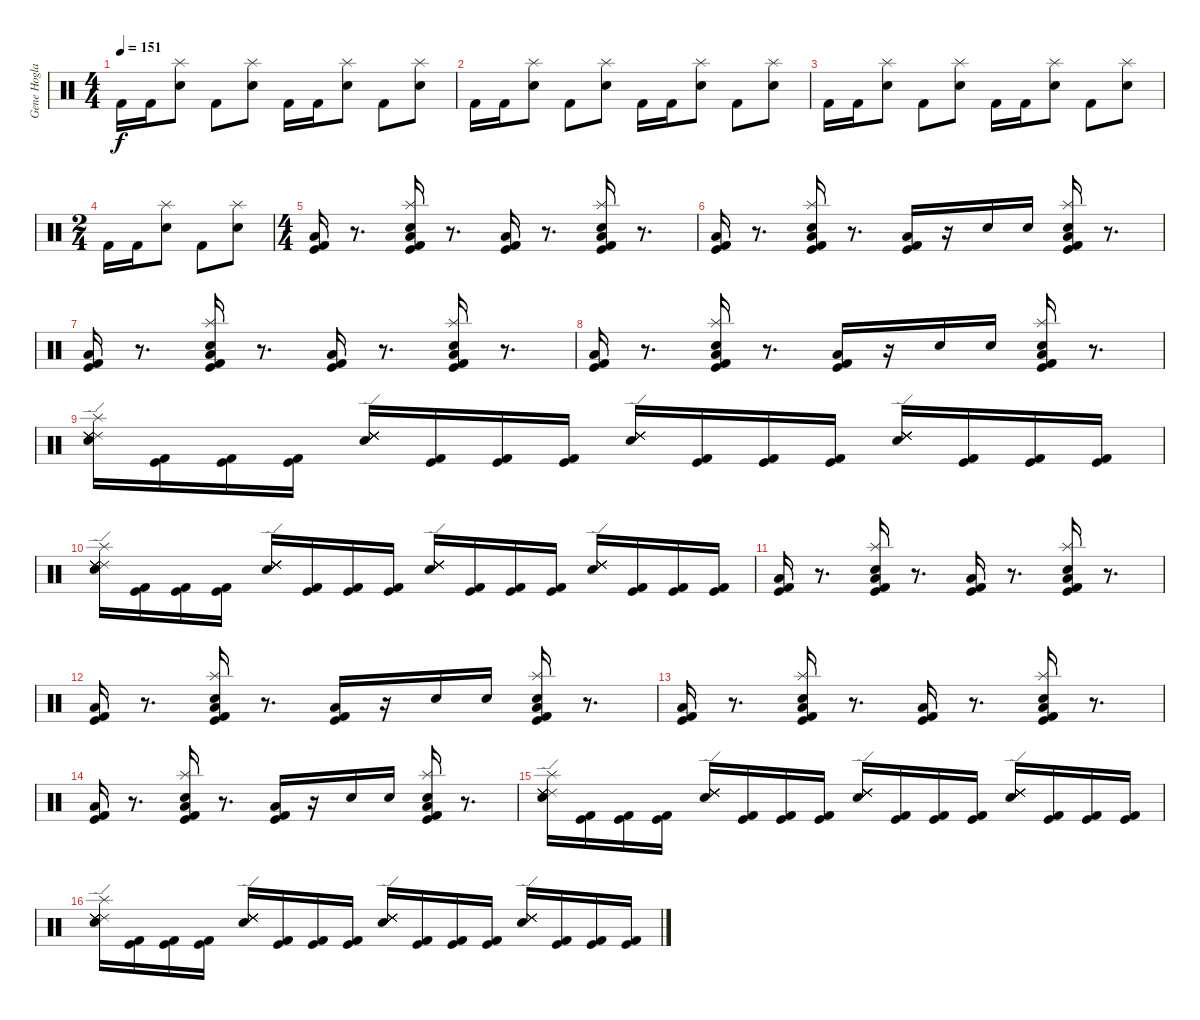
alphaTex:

\track ("Gene Hoglan" "Gene Hogla") {instrument percussion}
\staff {score}
\articulation defaults
\ts (4 4)
\tempo 151
\clef neutral
\ks c "Kick (hit) 2".16{dy f} "Kick (hit) 2".16
("Splash (hit)" "Snare (hit) 2").8 "Kick (hit) 2".8 ("Splash (hit)" "Snare (hit) 2").8 "Kick (hit) 2".16 "Kick (hit) 2".16 ("Splash (hit)" "Snare (hit) 2").8 "Kick (hit) 2".8 ("Splash (hit)" "Snare (hit) 2").8 |
"Kick (hit) 2".16 "Kick (hit) 2".16 ("Splash (hit)" "Snare (hit) 2").8 "Kick (hit) 2".8 ("Splash (hit)" "Snare (hit) 2").8 "Kick (hit) 2".16 "Kick (hit) 2".16 ("Splash (hit)" "Snare (hit) 2").8 "Kick (hit) 2".8 ("Splash (hit)" "Snare (hit) 2").8 |
"Kick (hit) 2".16 "Kick (hit) 2".16 ("Splash (hit)" "Snare (hit) 2").8 "Kick (hit) 2".8 ("Splash (hit)" "Snare (hit) 2").8 "Kick (hit) 2".16 "Kick (hit) 2".16 ("Splash (hit)" "Snare (hit) 2").8 "Kick (hit) 2".8 ("Splash (hit)" "Snare (hit) 2").8 |
\ts (2 4)
"Kick (hit) 2".16 "Kick (hit) 2".16 ("Splash (hit)" "Snare (hit) 2").8 "Kick (hit) 2".8 ("Splash (hit)" "Snare (hit) 2").8 |
\ts (4 4)
("Low Floor Tom (hit)" "Kick (hit)" "Kick (hit) 2").16 r.8{d} ("Low Floor Tom (hit)" "Kick (hit)" "Splash (hit)" "Snare (hit) 2" "Kick (hit) 2").16 r.8{d} ("Low Floor Tom (hit)" "Kick (hit)" "Kick (hit) 2").16 r.8{d} ("Low Floor Tom (hit)" "Kick (hit)" "Splash (hit)" "Snare (hit) 2" "Kick (hit) 2").16 r.8{d} |
("Low Floor Tom (hit)" "Kick (hit)" "Kick (hit) 2").16 r.8{d} ("Low Floor Tom (hit)" "Kick (hit)" "Splash (hit)" "Snare (hit) 2" "Kick (hit) 2").16 r.8{d} ("Low Floor Tom (hit)" "Kick (hit)" "Kick (hit) 2").16 r.16 "Snare (hit) 2".16 "Snare (hit) 2".16 ("Low Floor Tom (hit)" "Kick (hit)" "Splash (hit)" "Snare (hit) 2" "Kick (hit) 2").16 r.8{d} |
("Low Floor Tom (hit)" "Kick (hit)" "Kick (hit) 2").16 r.8{d} ("Kick (hit)" "Low Floor Tom (hit)" "Splash (hit)" "Snare (hit) 2" "Kick (hit) 2").16 r.8{d} ("Kick (hit)" "Low Floor Tom (hit)" "Kick (hit) 2").16 r.8{d} ("Kick (hit)" "Low Floor Tom (hit)" "Splash (hit)" "Snare (hit) 2" "Kick (hit) 2").16 r.8{d} |
("Low Floor Tom (hit)" "Kick (hit)" "Kick (hit) 2").16 r.8{d} ("Kick (hit)" "Low Floor Tom (hit)" "Splash (hit)" "Snare (hit) 2" "Kick (hit) 2").16 r.8{d} ("Low Floor Tom (hit)" "Kick (hit)" "Kick (hit) 2").16 r.16 "Snare (hit) 2".16 "Snare (hit) 2".16 ("Low Floor Tom (hit)" "Kick (hit)" "Splash (hit)" "Snare (hit) 2" "Kick (hit) 2").16 r.8{d} |
("Splash (hit)" "Electric Snare (hit)" "Ride (edge) 2" "Ride (edge) 2" "Ride (edge) 2" "Ride (edge) 2").16 ("Kick (hit)" "Kick (hit) 2").16 ("Kick (hit)" "Kick (hit) 2").16 ("Kick (hit)" "Kick (hit) 2").16 ("Ride (edge) 2" "Electric Snare (hit)" "Ride (edge) 2" "Ride (edge) 2" "Ride (edge) 2" "Ride (edge) 2").16 ("Kick (hit)" "Kick (hit) 2").16 ("Kick (hit)" "Kick (hit) 2").16 ("Kick (hit)" "Kick (hit) 2").16 ("Ride (edge) 2" "Electric Snare (hit)" "Ride (edge) 2" "Ride (edge) 2" "Ride (edge) 2" "Ride (edge) 2").16 ("Kick (hit)" "Kick (hit) 2").16 ("Kick (hit) 2" "Kick (hit)").16 ("Kick (hit)" "Kick (hit) 2").16 ("Ride (edge) 2" "Electric Snare (hit)" "Ride (edge) 2" "Ride (edge) 2" "Ride (edge) 2" "Ride (edge) 2").16 ("Kick (hit)" "Kick (hit) 2").16 ("Kick (hit)" "Kick (hit) 2").16 ("Kick (hit)" "Kick (hit) 2").16 |
("Splash (hit)" "Electric Snare (hit)" "Ride (edge) 2" "Ride (edge) 2" "Ride (edge) 2" "Ride (edge) 2").16 ("Kick (hit)" "Kick (hit) 2").16 ("Kick (hit)" "Kick (hit) 2").16 ("Kick (hit)" "Kick (hit) 2").16 ("Ride (edge) 2" "Electric Snare (hit)" "Ride (edge) 2" "Ride (edge) 2" "Ride (edge) 2" "Ride (edge) 2").16 ("Kick (hit)" "Kick (hit) 2").16 ("Kick (hit)" "Kick (hit) 2").16 ("Kick (hit)" "Kick (hit) 2").16 ("Ride (edge) 2" "Electric Snare (hit)" "Ride (edge) 2" "Ride (edge) 2" "Ride (edge) 2" "Ride (edge) 2").16 ("Kick (hit)" "Kick (hit) 2").16 ("Kick (hit) 2" "Kick (hit)").16 ("Kick (hit)" "Kick (hit) 2").16 ("Ride (edge) 2" "Electric Snare (hit)" "Ride (edge) 2" "Ride (edge) 2" "Ride (edge) 2" "Ride (edge) 2").16 ("Kick (hit)" "Kick (hit) 2").16 ("Kick (hit)" "Kick (hit) 2").16 ("Kick (hit)" "Kick (hit) 2").16 |
("Low Floor Tom (hit)" "Kick (hit)" "Kick (hit) 2").16 r.8{d} ("Low Floor Tom (hit)" "Kick (hit)" "Splash (hit)" "Snare (hit) 2" "Kick (hit) 2").16 r.8{d} ("Low Floor Tom (hit)" "Kick (hit)" "Kick (hit) 2").16 r.8{d} ("Low Floor Tom (hit)" "Kick (hit)" "Splash (hit)" "Snare (hit) 2" "Kick (hit) 2").16 r.8{d} |
("Low Floor Tom (hit)" "Kick (hit)" "Kick (hit) 2").16 r.8{d} ("Low Floor Tom (hit)" "Kick (hit)" "Splash (hit)" "Snare (hit) 2" "Kick (hit) 2").16 r.8{d} ("Low Floor Tom (hit)" "Kick (hit)" "Kick (hit) 2").16 r.16 "Snare (hit) 2".16 "Snare (hit) 2".16 ("Low Floor Tom (hit)" "Kick (hit)" "Splash (hit)" "Snare (hit) 2" "Kick (hit) 2").16 r.8{d} |
("Low Floor Tom (hit)" "Kick (hit)" "Kick (hit) 2").16 r.8{d} ("Kick (hit)" "Low Floor Tom (hit)" "Splash (hit)" "Snare (hit) 2" "Kick (hit) 2").16 r.8{d} ("Kick (hit)" "Low Floor Tom (hit)" "Kick (hit) 2").16 r.8{d} ("Kick (hit)" "Low Floor Tom (hit)" "Splash (hit)" "Snare (hit) 2" "Kick (hit) 2").16 r.8{d} |
("Low Floor Tom (hit)" "Kick (hit)" "Kick (hit) 2").16 r.8{d} ("Kick (hit)" "Low Floor Tom (hit)" "Splash (hit)" "Snare (hit) 2" "Kick (hit) 2").16 r.8{d} ("Low Floor Tom (hit)" "Kick (hit)" "Kick (hit) 2").16 r.16 "Snare (hit) 2".16 "Snare (hit) 2".16 ("Low Floor Tom (hit)" "Kick (hit)" "Splash (hit)" "Snare (hit) 2" "Kick (hit) 2").16 r.8{d} |
("Splash (hit)" "Electric Snare (hit)" "Ride (edge) 2" "Ride (edge) 2" "Ride (edge) 2" "Ride (edge) 2").16 ("Kick (hit)" "Kick (hit) 2").16 ("Kick (hit)" "Kick (hit) 2").16 ("Kick (hit)" "Kick (hit) 2").16 ("Ride (edge) 2" "Electric Snare (hit)" "Ride (edge) 2" "Ride (edge) 2" "Ride (edge) 2" "Ride (edge) 2").16 ("Kick (hit)" "Kick (hit) 2").16 ("Kick (hit)" "Kick (hit) 2").16 ("Kick (hit)" "Kick (hit) 2").16 ("Ride (edge) 2" "Electric Snare (hit)" "Ride (edge) 2" "Ride (edge) 2" "Ride (edge) 2" "Ride (edge) 2").16 ("Kick (hit)" "Kick (hit) 2").16 ("Kick (hit) 2" "Kick (hit)").16 ("Kick (hit)" "Kick (hit) 2").16 ("Ride (edge) 2" "Electric Snare (hit)" "Ride (edge) 2" "Ride (edge) 2" "Ride (edge) 2" "Ride (edge) 2").16 ("Kick (hit)" "Kick (hit) 2").16 ("Kick (hit)" "Kick (hit) 2").16 ("Kick (hit)" "Kick (hit) 2").16 |
("Splash (hit)" "Electric Snare (hit)" "Ride (edge) 2" "Ride (edge) 2" "Ride (edge) 2" "Ride (edge) 2").16 ("Kick (hit)" "Kick (hit) 2").16 ("Kick (hit)" "Kick (hit) 2").16 ("Kick (hit)" "Kick (hit) 2").16 ("Ride (edge) 2" "Electric Snare (hit)" "Ride (edge) 2" "Ride (edge) 2" "Ride (edge) 2" "Ride (edge) 2").16 ("Kick (hit)" "Kick (hit) 2").16 ("Kick (hit)" "Kick (hit) 2").16 ("Kick (hit)" "Kick (hit) 2").16 ("Ride (edge) 2" "Electric Snare (hit)" "Ride (edge) 2" "Ride (edge) 2" "Ride (edge) 2" "Ride (edge) 2").16 ("Kick (hit)" "Kick (hit) 2").16 ("Kick (hit) 2" "Kick (hit)").16 ("Kick (hit)" "Kick (hit) 2").16 ("Ride (edge) 2" "Electric Snare (hit)" "Ride (edge) 2" "Ride (edge) 2" "Ride (edge) 2" "Ride (edge) 2").16 ("Kick (hit)" "Kick (hit) 2").16 ("Kick (hit)" "Kick (hit) 2").16 ("Kick (hit)" "Kick (hit) 2").16
